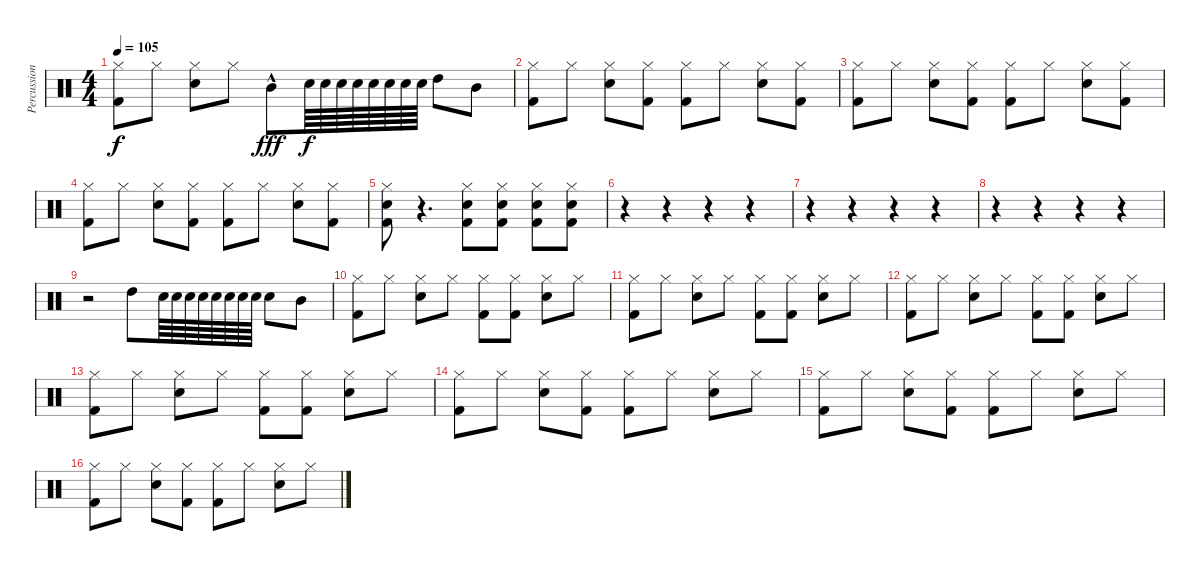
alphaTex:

\track ("Percussion" "Percussion") {instrument percussion}
\staff {score}
\articulation defaults
\ts (4 4)
\tempo 105
\clef neutral
\ks c
("Hi-Hat (closed)" "Kick (hit) 2").8{dy f} "Hi-Hat (closed)".8 ("Hi-Hat (closed)" "Snare (hit) 2").8 "Hi-Hat (closed)".8 "Mid Tom (hit)"{hac}.8{dy fff} "Snare (hit) 2".64{dy f} "Snare (hit) 2".64 "Snare (hit) 2".64 "Snare (hit) 2".64 "Snare (hit) 2".64 "Snare (hit) 2".64 "Snare (hit) 2".64 "Snare (hit) 2".64 "High Tom (hit)".8 "Mid Tom (hit)".8 |
("Hi-Hat (closed)" "Kick (hit) 2").8 "Hi-Hat (closed)".8 ("Hi-Hat (closed)" "Snare (hit) 2").8 ("Hi-Hat (closed)" "Kick (hit) 2").8 ("Hi-Hat (closed)" "Kick (hit) 2").8 "Hi-Hat (closed)".8 ("Hi-Hat (closed)" "Snare (hit) 2").8 ("Hi-Hat (closed)" "Kick (hit) 2").8 |
("Hi-Hat (closed)" "Kick (hit) 2").8 "Hi-Hat (closed)".8 ("Hi-Hat (closed)" "Snare (hit) 2").8 ("Hi-Hat (closed)" "Kick (hit) 2").8 ("Hi-Hat (closed)" "Kick (hit) 2").8 "Hi-Hat (closed)".8 ("Hi-Hat (closed)" "Snare (hit) 2").8 ("Hi-Hat (closed)" "Kick (hit) 2").8 |
("Hi-Hat (closed)" "Kick (hit) 2").8 "Hi-Hat (closed)".8 ("Hi-Hat (closed)" "Snare (hit) 2").8 ("Hi-Hat (closed)" "Kick (hit) 2").8 ("Hi-Hat (closed)" "Kick (hit) 2").8 "Hi-Hat (closed)".8 ("Hi-Hat (closed)" "Snare (hit) 2").8 ("Hi-Hat (closed)" "Kick (hit) 2").8 |
("Hi-Hat (closed)" "Kick (hit) 2" "Snare (hit) 2").8 r.4{d} ("Hi-Hat (closed)" "Kick (hit) 2" "Snare (hit) 2").8 ("Hi-Hat (closed)" "Kick (hit) 2" "Snare (hit) 2").8 ("Hi-Hat (closed)" "Kick (hit) 2" "Snare (hit) 2").8 ("Hi-Hat (closed)" "Kick (hit) 2" "Snare (hit) 2").8 |
r.4 r.4 r.4 r.4 |
r.4 r.4 r.4 r.4 |
r.4 r.4 r.4 r.4 |
r.2 "High Tom (hit)".8 "Snare (hit) 2".64 "Snare (hit) 2".64 "Snare (hit) 2".64 "Snare (hit) 2".64 "Snare (hit) 2".64 "Snare (hit) 2".64 "Snare (hit) 2".64 "Snare (hit) 2".64 "Snare (hit) 2".8 "Mid Tom (hit)".8 |
("Hi-Hat (closed)" "Kick (hit) 2").8 "Hi-Hat (closed)".8 ("Hi-Hat (closed)" "Snare (hit) 2").8 "Hi-Hat (closed)".8 ("Hi-Hat (closed)" "Kick (hit) 2").8 ("Hi-Hat (closed)" "Kick (hit) 2").8 ("Hi-Hat (closed)" "Snare (hit) 2").8 "Hi-Hat (closed)".8 |
("Hi-Hat (closed)" "Kick (hit) 2").8 "Hi-Hat (closed)".8 ("Hi-Hat (closed)" "Snare (hit) 2").8 "Hi-Hat (closed)".8 ("Hi-Hat (closed)" "Kick (hit) 2").8 ("Hi-Hat (closed)" "Kick (hit) 2").8 ("Hi-Hat (closed)" "Snare (hit) 2").8 "Hi-Hat (closed)".8 |
("Hi-Hat (closed)" "Kick (hit) 2").8 "Hi-Hat (closed)".8 ("Hi-Hat (closed)" "Snare (hit) 2").8 "Hi-Hat (closed)".8 ("Hi-Hat (closed)" "Kick (hit) 2").8 ("Hi-Hat (closed)" "Kick (hit) 2").8 ("Hi-Hat (closed)" "Snare (hit) 2").8 "Hi-Hat (closed)".8 |
("Hi-Hat (closed)" "Kick (hit) 2").8 "Hi-Hat (closed)".8 ("Hi-Hat (closed)" "Snare (hit) 2").8 "Hi-Hat (closed)".8 ("Hi-Hat (closed)" "Kick (hit) 2").8 ("Hi-Hat (closed)" "Kick (hit) 2").8 ("Hi-Hat (closed)" "Snare (hit) 2").8 "Hi-Hat (closed)".8 |
("Hi-Hat (closed)" "Kick (hit) 2").8 "Hi-Hat (closed)".8 ("Hi-Hat (closed)" "Snare (hit) 2").8 ("Hi-Hat (closed)" "Kick (hit) 2").8 ("Hi-Hat (closed)" "Kick (hit) 2").8 "Hi-Hat (closed)".8 ("Hi-Hat (closed)" "Snare (hit) 2").8 "Hi-Hat (closed)".8 |
("Hi-Hat (closed)" "Kick (hit) 2").8 "Hi-Hat (closed)".8 ("Hi-Hat (closed)" "Snare (hit) 2").8 ("Hi-Hat (closed)" "Kick (hit) 2").8 ("Hi-Hat (closed)" "Kick (hit) 2").8 "Hi-Hat (closed)".8 ("Hi-Hat (closed)" "Snare (hit) 2").8 "Hi-Hat (closed)".8 |
("Hi-Hat (closed)" "Kick (hit) 2").8 "Hi-Hat (closed)".8 ("Hi-Hat (closed)" "Snare (hit) 2").8 ("Hi-Hat (closed)" "Kick (hit) 2").8 ("Hi-Hat (closed)" "Kick (hit) 2").8 "Hi-Hat (closed)".8 ("Hi-Hat (closed)" "Snare (hit) 2").8 "Hi-Hat (closed)".8
